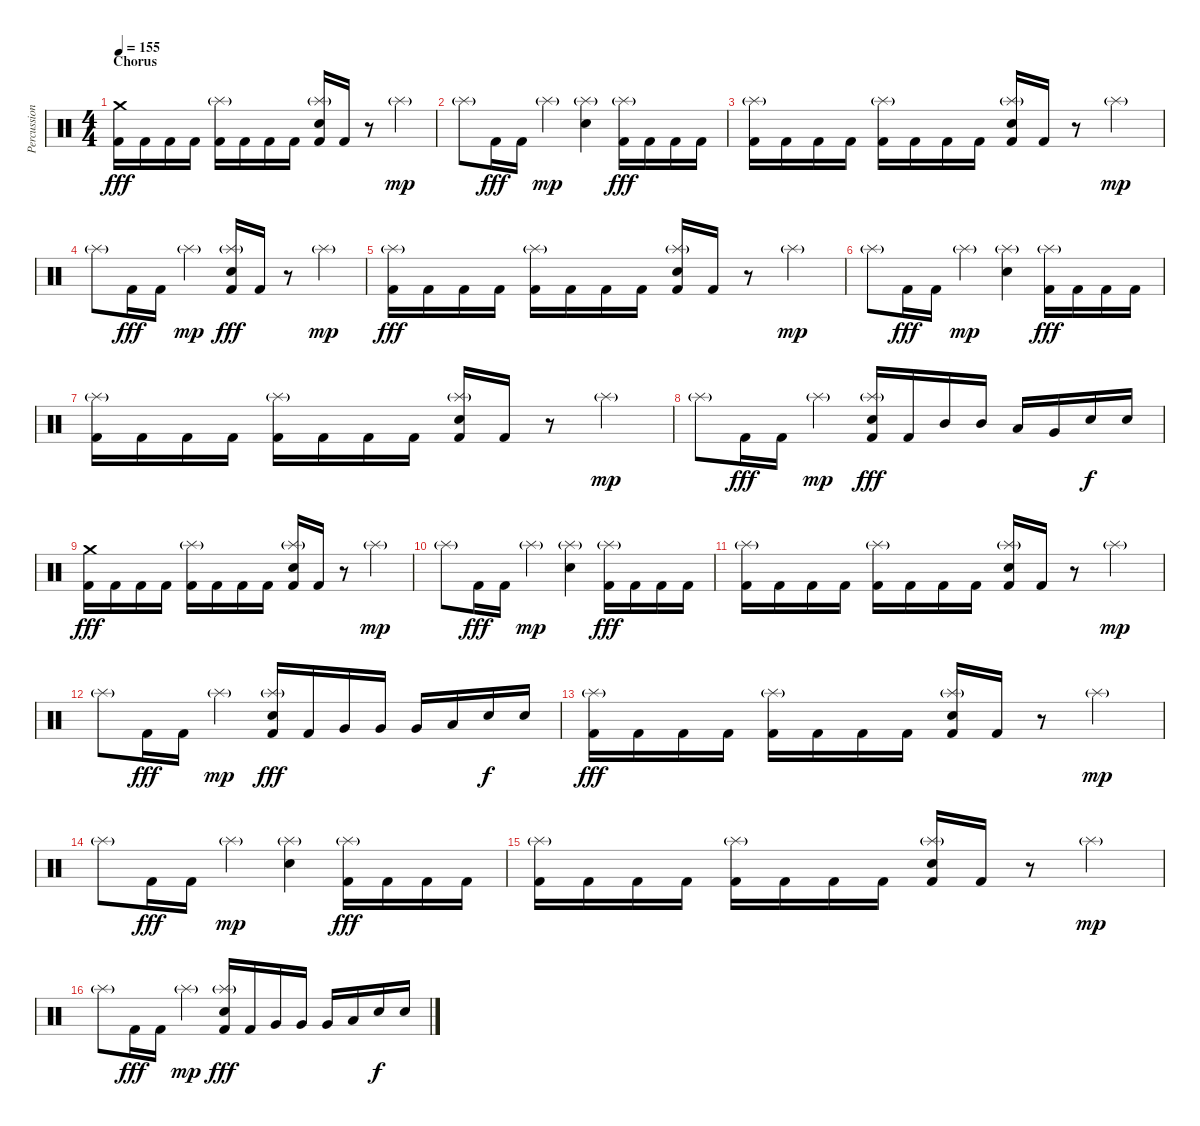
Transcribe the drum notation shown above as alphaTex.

\track ("Percussion" "Percussion") {instrument percussion}
\staff {score}
\articulation defaults
\ts (4 4)
\section ("" "Chorus")
\tempo 155
\clef neutral
\ks c
("Crash medium (hit)" "Kick (hit) 2").16{dy fff} "Kick (hit) 2".16 "Kick (hit) 2".16 "Kick (hit) 2".16 ("Splash (hit)"{g} "Kick (hit) 2").16 "Kick (hit) 2".16 "Kick (hit) 2".16 "Kick (hit) 2".16 ("Splash (hit)"{g} "Electric Snare (hit)" "Kick (hit) 2").16 "Kick (hit) 2".16 r.8 "Splash (hit)"{g}.4{dy mp} |
"Splash (hit)"{g}.8 "Kick (hit) 2".16{dy fff} "Kick (hit) 2".16 "Splash (hit)"{g}.4{dy mp} ("Splash (hit)"{g} "Electric Snare (hit)").4 ("Splash (hit)"{g} "Kick (hit) 2").16{dy fff} "Kick (hit) 2".16 "Kick (hit) 2".16 "Kick (hit) 2".16 |
("Splash (hit)"{g} "Kick (hit) 2").16 "Kick (hit) 2".16 "Kick (hit) 2".16 "Kick (hit) 2".16 ("Splash (hit)"{g} "Kick (hit) 2").16 "Kick (hit) 2".16 "Kick (hit) 2".16 "Kick (hit) 2".16 ("Splash (hit)"{g} "Electric Snare (hit)" "Kick (hit) 2").16 "Kick (hit) 2".16 r.8 "Splash (hit)"{g}.4{dy mp} |
"Splash (hit)"{g}.8 "Kick (hit) 2".16{dy fff} "Kick (hit) 2".16 "Splash (hit)"{g}.4{dy mp} ("Splash (hit)"{g} "Electric Snare (hit)" "Kick (hit) 2").16{dy fff} "Kick (hit) 2".16 r.8 "Splash (hit)"{g}.4{dy mp} |
("Splash (hit)"{g} "Kick (hit) 2").16{dy fff} "Kick (hit) 2".16 "Kick (hit) 2".16 "Kick (hit) 2".16 ("Splash (hit)"{g} "Kick (hit) 2").16 "Kick (hit) 2".16 "Kick (hit) 2".16 "Kick (hit) 2".16 ("Splash (hit)"{g} "Electric Snare (hit)" "Kick (hit) 2").16 "Kick (hit) 2".16 r.8 "Splash (hit)"{g}.4{dy mp} |
"Splash (hit)"{g}.8 "Kick (hit) 2".16{dy fff} "Kick (hit) 2".16 "Splash (hit)"{g}.4{dy mp} ("Splash (hit)"{g} "Electric Snare (hit)").4 ("Splash (hit)"{g} "Kick (hit) 2").16{dy fff} "Kick (hit) 2".16 "Kick (hit) 2".16 "Kick (hit) 2".16 |
("Splash (hit)"{g} "Kick (hit) 2").16 "Kick (hit) 2".16 "Kick (hit) 2".16 "Kick (hit) 2".16 ("Splash (hit)"{g} "Kick (hit) 2").16 "Kick (hit) 2".16 "Kick (hit) 2".16 "Kick (hit) 2".16 ("Splash (hit)"{g} "Electric Snare (hit)" "Kick (hit) 2").16 "Kick (hit) 2".16 r.8 "Splash (hit)"{g}.4{dy mp} |
"Splash (hit)"{g}.8 "Kick (hit) 2".16{dy fff} "Kick (hit) 2".16 "Splash (hit)"{g}.4{dy mp} ("Splash (hit)"{g} "Electric Snare (hit)" "Kick (hit) 2").16{dy fff} "Kick (hit) 2".16 "Mid Tom (hit)".16 "Mid Tom (hit)".16 "Low Tom (hit)".16 "Very Low Tom (hit)".16 "Electric Snare (hit)".16{dy f} "Electric Snare (hit)".16 |
("Crash medium (hit)" "Kick (hit) 2").16{dy fff} "Kick (hit) 2".16 "Kick (hit) 2".16 "Kick (hit) 2".16 ("Splash (hit)"{g} "Kick (hit) 2").16 "Kick (hit) 2".16 "Kick (hit) 2".16 "Kick (hit) 2".16 ("Splash (hit)"{g} "Electric Snare (hit)" "Kick (hit) 2").16 "Kick (hit) 2".16 r.8 "Splash (hit)"{g}.4{dy mp} |
"Splash (hit)"{g}.8 "Kick (hit) 2".16{dy fff} "Kick (hit) 2".16 "Splash (hit)"{g}.4{dy mp} ("Splash (hit)"{g} "Electric Snare (hit)").4 ("Splash (hit)"{g} "Kick (hit) 2").16{dy fff} "Kick (hit) 2".16 "Kick (hit) 2".16 "Kick (hit) 2".16 |
("Splash (hit)"{g} "Kick (hit) 2").16 "Kick (hit) 2".16 "Kick (hit) 2".16 "Kick (hit) 2".16 ("Splash (hit)"{g} "Kick (hit) 2").16 "Kick (hit) 2".16 "Kick (hit) 2".16 "Kick (hit) 2".16 ("Splash (hit)"{g} "Electric Snare (hit)" "Kick (hit) 2").16 "Kick (hit) 2".16 r.8 "Splash (hit)"{g}.4{dy mp} |
"Splash (hit)"{g}.8 "Kick (hit) 2".16{dy fff} "Kick (hit) 2".16 "Splash (hit)"{g}.4{dy mp} ("Splash (hit)"{g} "Electric Snare (hit)" "Kick (hit) 2").16{dy fff} "Kick (hit) 2".16 "Very Low Tom (hit)".16 "Very Low Tom (hit)".16 "Very Low Tom (hit)".16 "Low Floor Tom (hit)".16 "Electric Snare (hit)".16{dy f} "Electric Snare (hit)".16 |
("Splash (hit)"{g} "Kick (hit) 2").16{dy fff} "Kick (hit) 2".16 "Kick (hit) 2".16 "Kick (hit) 2".16 ("Splash (hit)"{g} "Kick (hit) 2").16 "Kick (hit) 2".16 "Kick (hit) 2".16 "Kick (hit) 2".16 ("Splash (hit)"{g} "Electric Snare (hit)" "Kick (hit) 2").16 "Kick (hit) 2".16 r.8 "Splash (hit)"{g}.4{dy mp} |
"Splash (hit)"{g}.8 "Kick (hit) 2".16{dy fff} "Kick (hit) 2".16 "Splash (hit)"{g}.4{dy mp} ("Splash (hit)"{g} "Electric Snare (hit)").4 ("Splash (hit)"{g} "Kick (hit) 2").16{dy fff} "Kick (hit) 2".16 "Kick (hit) 2".16 "Kick (hit) 2".16 |
("Splash (hit)"{g} "Kick (hit) 2").16 "Kick (hit) 2".16 "Kick (hit) 2".16 "Kick (hit) 2".16 ("Splash (hit)"{g} "Kick (hit) 2").16 "Kick (hit) 2".16 "Kick (hit) 2".16 "Kick (hit) 2".16 ("Splash (hit)"{g} "Electric Snare (hit)" "Kick (hit) 2").16 "Kick (hit) 2".16 r.8 "Splash (hit)"{g}.4{dy mp} |
"Splash (hit)"{g}.8 "Kick (hit) 2".16{dy fff} "Kick (hit) 2".16 "Splash (hit)"{g}.4{dy mp} ("Splash (hit)"{g} "Electric Snare (hit)" "Kick (hit) 2").16{dy fff} "Kick (hit) 2".16 "Very Low Tom (hit)".16 "Very Low Tom (hit)".16 "Very Low Tom (hit)".16 "Low Floor Tom (hit)".16 "Electric Snare (hit)".16{dy f} "Electric Snare (hit)".16
